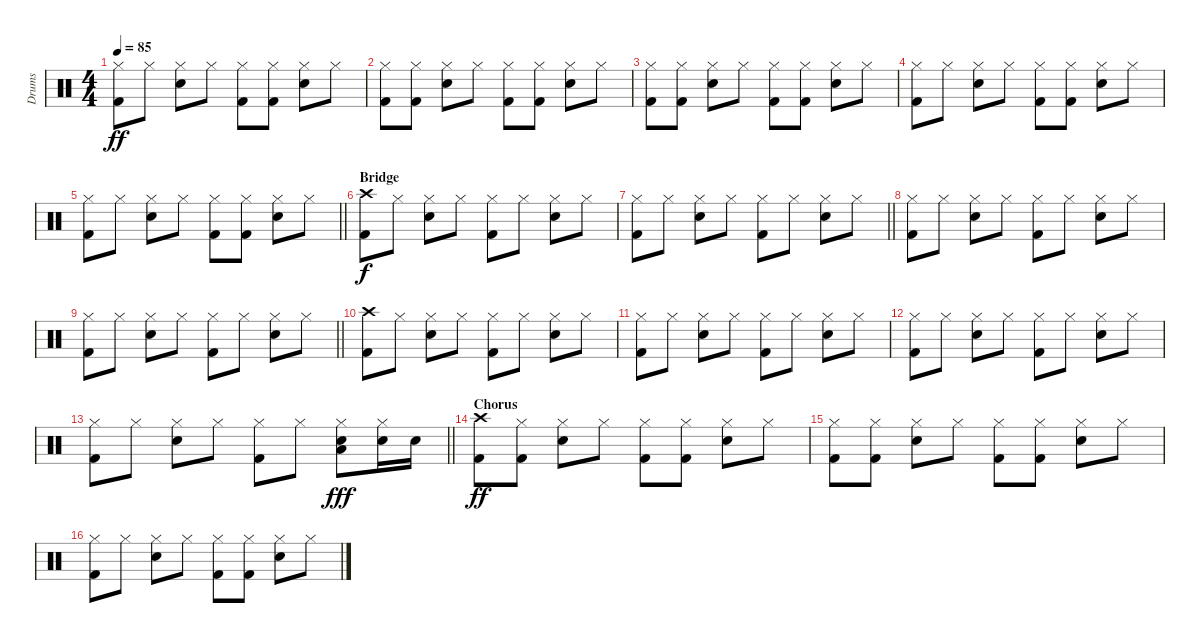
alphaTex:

\track ("Drums" "Drums") {instrument percussion}
\staff {score}
\articulation defaults
\ts (4 4)
\tempo 85
\clef neutral
\ks c
("Hi-Hat (closed)" "Kick (hit) 2").8{dy ff} "Hi-Hat (closed)".8 ("Hi-Hat (closed)" "Snare (hit) 2").8 "Hi-Hat (closed)".8 ("Hi-Hat (closed)" "Kick (hit) 2").8 ("Hi-Hat (closed)" "Kick (hit) 2").8 ("Hi-Hat (closed)" "Snare (hit) 2").8 "Hi-Hat (closed)".8 |
("Hi-Hat (closed)" "Kick (hit) 2").8 ("Hi-Hat (closed)" "Kick (hit) 2").8 ("Hi-Hat (closed)" "Snare (hit) 2").8 "Hi-Hat (closed)".8 ("Hi-Hat (closed)" "Kick (hit) 2").8 ("Hi-Hat (closed)" "Kick (hit) 2").8 ("Hi-Hat (closed)" "Snare (hit) 2").8 "Hi-Hat (closed)".8 |
("Hi-Hat (closed)" "Kick (hit) 2").8 ("Hi-Hat (closed)" "Kick (hit) 2").8 ("Hi-Hat (closed)" "Snare (hit) 2").8 "Hi-Hat (closed)".8 ("Hi-Hat (closed)" "Kick (hit) 2").8 ("Hi-Hat (closed)" "Kick (hit) 2").8 ("Hi-Hat (closed)" "Snare (hit) 2").8 "Hi-Hat (closed)".8 |
("Hi-Hat (closed)" "Kick (hit) 2").8 "Hi-Hat (closed)".8 ("Hi-Hat (closed)" "Snare (hit) 2").8 "Hi-Hat (closed)".8 ("Hi-Hat (closed)" "Kick (hit) 2").8 ("Hi-Hat (closed)" "Kick (hit) 2").8 ("Hi-Hat (closed)" "Snare (hit) 2").8 "Hi-Hat (closed)".8 |
\barLineRight lightlight
("Hi-Hat (closed)" "Kick (hit) 2").8 "Hi-Hat (closed)".8 ("Hi-Hat (closed)" "Snare (hit) 2").8 "Hi-Hat (closed)".8 ("Hi-Hat (closed)" "Kick (hit) 2").8 ("Hi-Hat (closed)" "Kick (hit) 2").8 ("Hi-Hat (closed)" "Snare (hit) 2").8 "Hi-Hat (closed)".8 |
\section ("" "Bridge")
("Crash high (hit)" "Kick (hit) 2").8{dy f} "Hi-Hat (closed)".8 ("Hi-Hat (closed)" "Snare (hit) 2").8 "Hi-Hat (closed)".8 ("Hi-Hat (closed)" "Kick (hit) 2").8 "Hi-Hat (closed)".8 ("Hi-Hat (closed)" "Snare (hit) 2").8 "Hi-Hat (closed)".8 |
\barLineRight lightlight
("Hi-Hat (closed)" "Kick (hit) 2").8 "Hi-Hat (closed)".8 ("Hi-Hat (closed)" "Snare (hit) 2").8 "Hi-Hat (closed)".8 ("Hi-Hat (closed)" "Kick (hit) 2").8 "Hi-Hat (closed)".8 ("Hi-Hat (closed)" "Snare (hit) 2").8 "Hi-Hat (closed)".8 |
("Hi-Hat (closed)" "Kick (hit) 2").8 "Hi-Hat (closed)".8 ("Hi-Hat (closed)" "Snare (hit) 2").8 "Hi-Hat (closed)".8 ("Hi-Hat (closed)" "Kick (hit) 2").8 "Hi-Hat (closed)".8 ("Hi-Hat (closed)" "Snare (hit) 2").8 "Hi-Hat (closed)".8 |
\barLineRight lightlight
("Hi-Hat (closed)" "Kick (hit) 2").8 "Hi-Hat (closed)".8 ("Hi-Hat (closed)" "Snare (hit) 2").8 "Hi-Hat (closed)".8 ("Hi-Hat (closed)" "Kick (hit) 2").8 "Hi-Hat (closed)".8 ("Hi-Hat (closed)" "Snare (hit) 2").8 "Hi-Hat (closed)".8 |
("Crash high (hit)" "Kick (hit) 2").8 "Hi-Hat (closed)".8 ("Hi-Hat (closed)" "Snare (hit) 2").8 "Hi-Hat (closed)".8 ("Hi-Hat (closed)" "Kick (hit) 2").8 "Hi-Hat (closed)".8 ("Hi-Hat (closed)" "Snare (hit) 2").8 "Hi-Hat (closed)".8 |
("Hi-Hat (closed)" "Kick (hit) 2").8 "Hi-Hat (closed)".8 ("Hi-Hat (closed)" "Snare (hit) 2").8 "Hi-Hat (closed)".8 ("Hi-Hat (closed)" "Kick (hit) 2").8 "Hi-Hat (closed)".8 ("Hi-Hat (closed)" "Snare (hit) 2").8 "Hi-Hat (closed)".8 |
("Hi-Hat (closed)" "Kick (hit) 2").8 "Hi-Hat (closed)".8 ("Hi-Hat (closed)" "Snare (hit) 2").8 "Hi-Hat (closed)".8 ("Hi-Hat (closed)" "Kick (hit) 2").8 "Hi-Hat (closed)".8 ("Hi-Hat (closed)" "Snare (hit) 2").8 "Hi-Hat (closed)".8 |
\barLineRight lightlight
("Hi-Hat (closed)" "Kick (hit) 2").8 "Hi-Hat (closed)".8 ("Hi-Hat (closed)" "Snare (hit) 2").8 "Hi-Hat (closed)".8 ("Hi-Hat (closed)" "Kick (hit) 2").8 "Hi-Hat (closed)".8 ("Hi-Hat (closed)" "Snare (hit) 2" "Low Floor Tom (hit)").8{dy fff} ("Hi-Hat (closed)" "Snare (hit) 2").16 "Snare (hit) 2".16 |
\section ("" "Chorus")
("Crash high (hit)" "Kick (hit) 2").8{dy ff} ("Hi-Hat (closed)" "Kick (hit) 2").8 ("Hi-Hat (closed)" "Snare (hit) 2").8 "Hi-Hat (closed)".8 ("Hi-Hat (closed)" "Kick (hit) 2").8 ("Hi-Hat (closed)" "Kick (hit) 2").8 ("Hi-Hat (closed)" "Snare (hit) 2").8 "Hi-Hat (closed)".8 |
("Hi-Hat (closed)" "Kick (hit) 2").8 ("Hi-Hat (closed)" "Kick (hit) 2").8 ("Hi-Hat (closed)" "Snare (hit) 2").8 "Hi-Hat (closed)".8 ("Hi-Hat (closed)" "Kick (hit) 2").8 ("Hi-Hat (closed)" "Kick (hit) 2").8 ("Hi-Hat (closed)" "Snare (hit) 2").8 "Hi-Hat (closed)".8 |
("Hi-Hat (closed)" "Kick (hit) 2").8 "Hi-Hat (closed)".8 ("Hi-Hat (closed)" "Snare (hit) 2").8 "Hi-Hat (closed)".8 ("Hi-Hat (closed)" "Kick (hit) 2").8 ("Hi-Hat (closed)" "Kick (hit) 2").8 ("Hi-Hat (closed)" "Snare (hit) 2").8 "Hi-Hat (closed)".8
